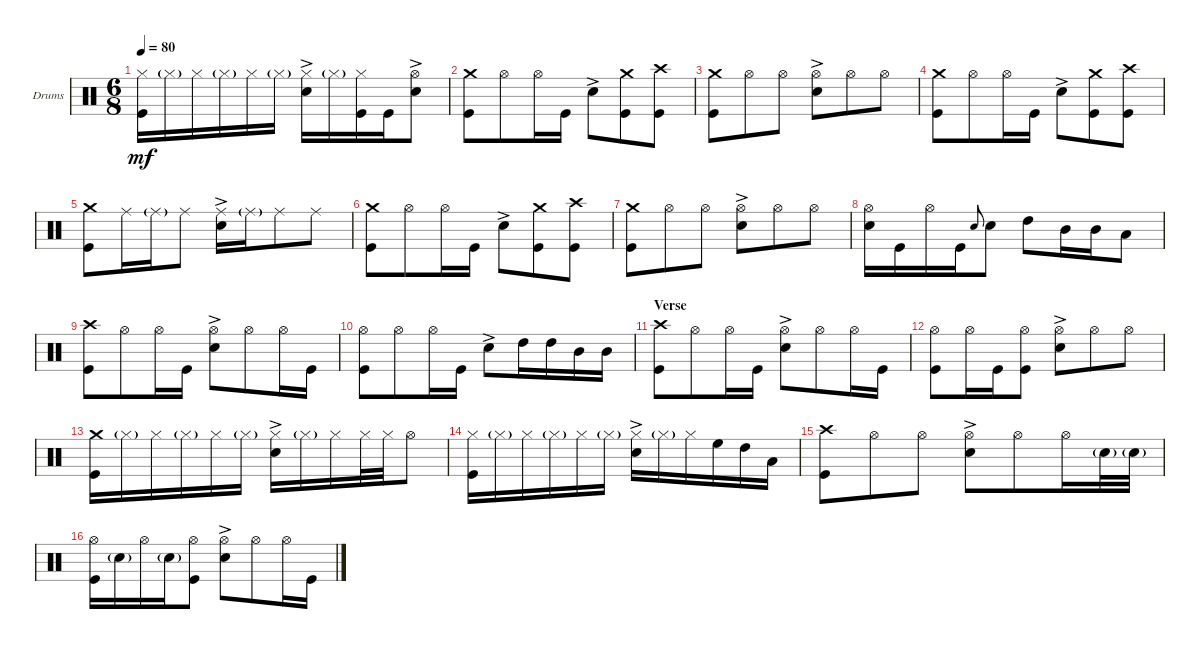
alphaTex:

\bracketExtendMode groupsimilarinstruments
\firstSystemTrackNameOrientation horizontal
\otherSystemsTrackNameOrientation horizontal
\track ("Drumkit" "Drums") {instrument percussion}
\staff {score}
\articulation defaults
\ts (6 8)
\tempo 80
\clef neutral
\ks c
("Kick (hit)" "Hi-Hat (closed)").16{dy mf} "Hi-Hat (closed)"{g}.16 "Hi-Hat (closed)".16 "Hi-Hat (closed)"{g}.16 "Hi-Hat (closed)".16 "Hi-Hat (closed)"{g}.16 ("Hi-Hat (closed)" "Snare (hit) 2"{ac}).16 "Hi-Hat (closed)"{g}.16 ("Hi-Hat (closed)" "Kick (hit)").16 "Kick (hit)".16 ("Snare (hit) 2"{ac} "Hi-Hat (open)").8 |
("Kick (hit)" "Crash medium (hit)").8 "Hi-Hat (open)".8 "Hi-Hat (open)".16 "Kick (hit)".16 "Snare (hit) 2"{ac}.8 ("Kick (hit)" "Crash medium (hit)").8 ("Kick (hit)" "Crash high (hit)").8 |
("Kick (hit)" "Crash medium (hit)").8 "Hi-Hat (open)".8 "Hi-Hat (open)".8 ("Hi-Hat (open)" "Snare (hit) 2"{ac}).8 "Hi-Hat (open)".8 "Hi-Hat (open)".8 |
("Kick (hit)" "Crash medium (hit)").8 "Hi-Hat (open)".8 "Hi-Hat (open)".16 "Kick (hit)".16 "Snare (hit) 2"{ac}.8 ("Kick (hit)" "Crash medium (hit)").8 ("Kick (hit)" "Crash high (hit)").8 |
("Kick (hit)" "Crash medium (hit)").8 "Ride (middle)".16 "Ride (middle)"{g}.16 "Ride (middle)".8 ("Snare (hit) 2"{ac} "Ride (middle)").16 "Ride (middle)"{g}.16 "Ride (middle)".8 "Ride (middle)".8 |
("Kick (hit)" "Crash medium (hit)").8 "Hi-Hat (open)".8 "Hi-Hat (open)".16 "Kick (hit)".16 "Snare (hit) 2"{ac}.8 ("Kick (hit)" "Crash medium (hit)").8 ("Kick (hit)" "Crash high (hit)").8 |
("Kick (hit)" "Crash medium (hit)").8 "Hi-Hat (open)".8 "Hi-Hat (open)".8 ("Hi-Hat (open)" "Snare (hit) 2"{ac}).8 "Hi-Hat (open)".8 "Hi-Hat (open)".8 |
("Snare (hit) 2" "Hi-Hat (open)").16 "Kick (hit)".16 "Hi-Hat (open)".16 "Kick (hit)".16 "Snare (hit) 2".8{gr onbeat} "Snare (hit) 2".8 "High Tom (hit)".8 "Mid Tom (hit)".16 "Mid Tom (hit)".16 "Low Tom (hit)".8 |
("Kick (hit)" "Crash high (hit)").8 "Hi-Hat (open)".8 "Hi-Hat (open)".16 "Kick (hit)".16 ("Snare (hit) 2"{ac} "Hi-Hat (open)").8 "Hi-Hat (open)".8 "Hi-Hat (open)".16 "Kick (hit)".16 |
("Kick (hit)" "Hi-Hat (open)").8 "Hi-Hat (open)".8 "Hi-Hat (open)".16 "Kick (hit)".16 "Snare (hit) 2"{ac}.8 "High Tom (hit)".16 "High Tom (hit)".16 "Mid Tom (hit)".16 "Mid Tom (hit)".16 |
\section ("" "Verse")
("Kick (hit)" "Crash high (hit)").8 "Hi-Hat (open)".8 "Hi-Hat (open)".16 "Kick (hit)".16 ("Hi-Hat (open)" "Snare (hit) 2"{ac}).8 "Hi-Hat (open)".8 "Hi-Hat (open)".16 "Kick (hit)".16 |
("Kick (hit)" "Hi-Hat (open)").8 "Hi-Hat (open)".16 "Kick (hit)".16 ("Kick (hit)" "Hi-Hat (open)").8 ("Snare (hit) 2"{ac} "Hi-Hat (open)").8 "Hi-Hat (open)".8 "Hi-Hat (open)".8 |
("Kick (hit)" "Crash medium (hit)").16 "Hi-Hat (closed)"{g}.16 "Hi-Hat (closed)".16 "Hi-Hat (closed)"{g}.16 "Hi-Hat (closed)".16 "Hi-Hat (closed)"{g}.16 ("Hi-Hat (closed)" "Snare (hit) 2"{ac}).16 "Hi-Hat (closed)"{g}.16 "Hi-Hat (closed)".16 "Hi-Hat (closed)".32 "Hi-Hat (closed)".32 "Hi-Hat (open)".8 |
("Kick (hit)" "Hi-Hat (closed)").16 "Hi-Hat (closed)"{g}.16 "Hi-Hat (closed)".16 "Hi-Hat (closed)"{g}.16 "Hi-Hat (closed)".16 "Hi-Hat (closed)"{g}.16 ("Hi-Hat (closed)" "Snare (hit) 2"{ac}).16 "Hi-Hat (closed)"{g}.16 "Hi-Hat (closed)".16 "High Floor Tom (hit)".16 "High Tom (hit)".16 "Low Tom (hit)".16 |
("Kick (hit)" "Crash high (hit)").8 "Hi-Hat (open)".8 "Hi-Hat (open)".8 ("Hi-Hat (open)" "Snare (hit) 2"{ac}).8 "Hi-Hat (open)".8 "Hi-Hat (open)".16 "Snare (hit) 2"{g}.32 "Snare (hit) 2"{g}.32 |
("Kick (hit)" "Hi-Hat (open)").16 "Snare (hit) 2"{g}.16 "Hi-Hat (open)".16 "Snare (hit) 2"{g}.16 ("Kick (hit)" "Hi-Hat (open)").8 ("Snare (hit) 2"{ac} "Hi-Hat (open)").8 "Hi-Hat (open)".8 "Hi-Hat (open)".16 "Kick (hit)".16
